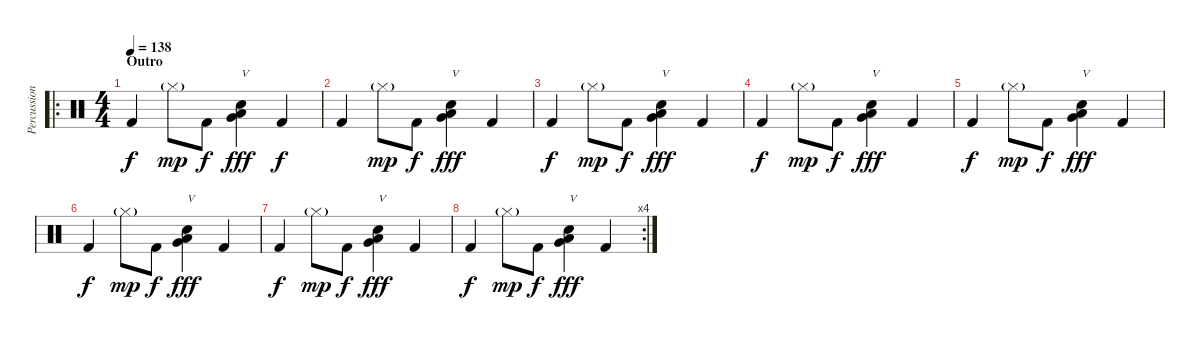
\track ("Percussion" "Percussion") {instrument percussion}
\staff {score}
\articulation defaults
\ro
\ts (4 4)
\section ("" "Outro")
\tempo 138
\clef neutral
\ks c "Kick (hit) 2".4{dy f} "Hi-Hat (closed)"{g}.8{dy mp} "Kick (hit) 2".8{dy f}
("Low Tom (hit)" "Very Low Tom (hit)" "Snare (hit) 2").4{txt "V" dy fff} "Kick (hit) 2".4{dy f} |
"Kick (hit) 2".4 "Hi-Hat (closed)"{g}.8{dy mp} "Kick (hit) 2".8{dy f} ("Low Tom (hit)" "Very Low Tom (hit)" "Snare (hit) 2").4{txt "V" dy fff} "Kick (hit) 2".4 |
"Kick (hit) 2".4{dy f} "Hi-Hat (closed)"{g}.8{dy mp} "Kick (hit) 2".8{dy f} ("Low Tom (hit)" "Very Low Tom (hit)" "Snare (hit) 2").4{txt "V" dy fff} "Kick (hit) 2".4 |
"Kick (hit) 2".4{dy f} "Hi-Hat (closed)"{g}.8{dy mp} "Kick (hit) 2".8{dy f} ("Low Tom (hit)" "Very Low Tom (hit)" "Snare (hit) 2").4{txt "V" dy fff} "Kick (hit) 2".4 |
"Kick (hit) 2".4{dy f} "Hi-Hat (closed)"{g}.8{dy mp} "Kick (hit) 2".8{dy f} ("Low Tom (hit)" "Very Low Tom (hit)" "Snare (hit) 2").4{txt "V" dy fff} "Kick (hit) 2".4 |
"Kick (hit) 2".4{dy f} "Hi-Hat (closed)"{g}.8{dy mp} "Kick (hit) 2".8{dy f} ("Low Tom (hit)" "Very Low Tom (hit)" "Snare (hit) 2").4{txt "V" dy fff} "Kick (hit) 2".4 |
"Kick (hit) 2".4{dy f} "Hi-Hat (closed)"{g}.8{dy mp} "Kick (hit) 2".8{dy f} ("Low Tom (hit)" "Very Low Tom (hit)" "Snare (hit) 2").4{txt "V" dy fff} "Kick (hit) 2".4 |
\rc 4 "Kick (hit) 2".4{dy f} "Hi-Hat (closed)"{g}.8{dy mp} "Kick (hit) 2".8{dy f}
("Low Tom (hit)" "Very Low Tom (hit)" "Snare (hit) 2").4{txt "V" dy fff} "Kick (hit) 2".4
